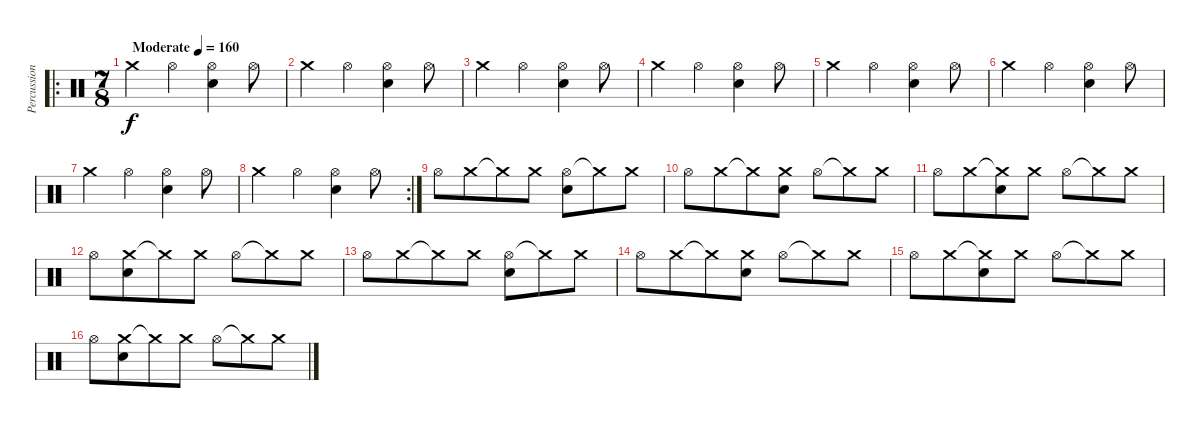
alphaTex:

\track ("Percussion" "Percussion") {instrument percussion}
\staff {score}
\articulation defaults
\ro
\ts (7 8)
\tempo (160 "Moderate")
\clef neutral
\ks c "Crash medium (hit)".4{dy f} "Hi-Hat (open)".4
("Hi-Hat (open)" "Snare (hit) 2").4 "Hi-Hat (open)".8 |
"Crash medium (hit)".4 "Hi-Hat (open)".4 ("Hi-Hat (open)" "Snare (hit) 2").4 "Hi-Hat (open)".8 |
"Crash medium (hit)".4 "Hi-Hat (open)".4 ("Hi-Hat (open)" "Snare (hit) 2").4 "Hi-Hat (open)".8 |
"Crash medium (hit)".4 "Hi-Hat (open)".4 ("Hi-Hat (open)" "Snare (hit) 2").4 "Hi-Hat (open)".8 |
"Crash medium (hit)".4 "Hi-Hat (open)".4 ("Hi-Hat (open)" "Snare (hit) 2").4 "Hi-Hat (open)".8 |
"Crash medium (hit)".4 "Hi-Hat (open)".4 ("Hi-Hat (open)" "Snare (hit) 2").4 "Hi-Hat (open)".8 |
"Crash medium (hit)".4 "Hi-Hat (open)".4 ("Hi-Hat (open)" "Snare (hit) 2").4 "Hi-Hat (open)".8 |
\rc 2 "Crash medium (hit)".4 "Hi-Hat (open)".4
("Hi-Hat (open)" "Snare (hit) 2").4 "Hi-Hat (open)".8 |
"Hi-Hat (open)".8 "Crash medium (hit)".8 "Crash medium (hit)"{t}.8 "Crash medium (hit)".8 ("Hi-Hat (open)" "Snare (hit) 2").8 "Crash medium (hit)"{t}.8 "Crash medium (hit)".8 |
"Hi-Hat (open)".8 "Crash medium (hit)".8 "Crash medium (hit)"{t}.8 ("Crash medium (hit)" "Snare (hit) 2").8 "Hi-Hat (open)".8 "Crash medium (hit)"{t}.8 "Crash medium (hit)".8 |
"Hi-Hat (open)".8 "Crash medium (hit)".8 ("Crash medium (hit)"{t} "Snare (hit) 2").8 "Crash medium (hit)".8 "Hi-Hat (open)".8 "Crash medium (hit)"{t}.8 "Crash medium (hit)".8 |
"Hi-Hat (open)".8 ("Crash medium (hit)" "Snare (hit) 2").8 "Crash medium (hit)"{t}.8 "Crash medium (hit)".8 "Hi-Hat (open)".8 "Crash medium (hit)"{t}.8 "Crash medium (hit)".8 |
"Hi-Hat (open)".8 "Crash medium (hit)".8 "Crash medium (hit)"{t}.8 "Crash medium (hit)".8 ("Hi-Hat (open)" "Snare (hit) 2").8 "Crash medium (hit)"{t}.8 "Crash medium (hit)".8 |
"Hi-Hat (open)".8 "Crash medium (hit)".8 "Crash medium (hit)"{t}.8 ("Crash medium (hit)" "Snare (hit) 2").8 "Hi-Hat (open)".8 "Crash medium (hit)"{t}.8 "Crash medium (hit)".8 |
"Hi-Hat (open)".8 "Crash medium (hit)".8 ("Crash medium (hit)"{t} "Snare (hit) 2").8 "Crash medium (hit)".8 "Hi-Hat (open)".8 "Crash medium (hit)"{t}.8 "Crash medium (hit)".8 |
"Hi-Hat (open)".8 ("Crash medium (hit)" "Snare (hit) 2").8 "Crash medium (hit)"{t}.8 "Crash medium (hit)".8 "Hi-Hat (open)".8 "Crash medium (hit)"{t}.8 "Crash medium (hit)".8
